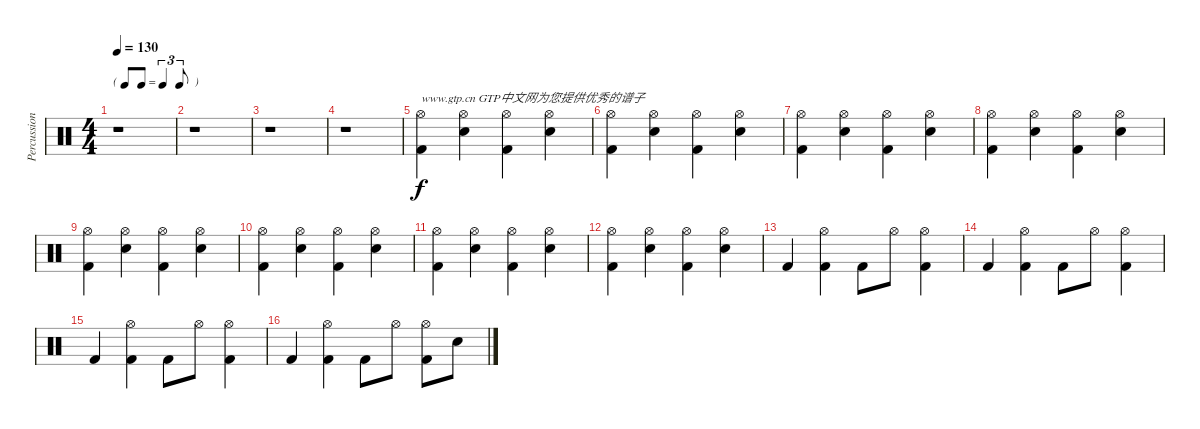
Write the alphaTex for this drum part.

\track ("Percussion" "Percussion") {instrument percussion}
\staff {score}
\articulation defaults
\ts (4 4)
\tf triplet8th
\tempo 130
\clef neutral
\ks c
r.1{dy f} |
r.1 |
r.1 |
r.1 |
("Hi-Hat (open)" "Kick (hit) 2").4{txt "www.gtp.cn GTP中文网为您提供优秀的谱子"} ("Hi-Hat (open)" "Hand Clap (hit)").4 ("Hi-Hat (open)" "Kick (hit) 2").4 ("Hi-Hat (open)" "Hand Clap (hit)").4 |
("Hi-Hat (open)" "Kick (hit) 2").4 ("Hi-Hat (open)" "Hand Clap (hit)").4 ("Hi-Hat (open)" "Kick (hit) 2").4 ("Hi-Hat (open)" "Hand Clap (hit)").4 |
("Hi-Hat (open)" "Kick (hit) 2").4 ("Hi-Hat (open)" "Hand Clap (hit)").4 ("Hi-Hat (open)" "Kick (hit) 2").4 ("Hi-Hat (open)" "Hand Clap (hit)").4 |
("Hi-Hat (open)" "Kick (hit) 2").4 ("Hi-Hat (open)" "Hand Clap (hit)").4 ("Hi-Hat (open)" "Kick (hit) 2").4 ("Hi-Hat (open)" "Hand Clap (hit)").4 |
("Hi-Hat (open)" "Kick (hit) 2").4 ("Hi-Hat (open)" "Hand Clap (hit)").4 ("Hi-Hat (open)" "Kick (hit) 2").4 ("Hi-Hat (open)" "Hand Clap (hit)").4 |
("Hi-Hat (open)" "Kick (hit) 2").4 ("Hi-Hat (open)" "Hand Clap (hit)").4 ("Hi-Hat (open)" "Kick (hit) 2").4 ("Hi-Hat (open)" "Hand Clap (hit)").4 |
("Hi-Hat (open)" "Kick (hit) 2").4 ("Hi-Hat (open)" "Hand Clap (hit)").4 ("Hi-Hat (open)" "Kick (hit) 2").4 ("Hi-Hat (open)" "Hand Clap (hit)").4 |
("Hi-Hat (open)" "Kick (hit) 2").4 ("Hi-Hat (open)" "Hand Clap (hit)").4 ("Hi-Hat (open)" "Kick (hit) 2").4 ("Hi-Hat (open)" "Hand Clap (hit)").4 |
"Kick (hit) 2".4 ("Hi-Hat (open)" "Kick (hit) 2").4 "Kick (hit) 2".8 "Hi-Hat (open)".8 ("Hi-Hat (open)" "Kick (hit) 2").4 |
"Kick (hit) 2".4 ("Hi-Hat (open)" "Kick (hit) 2").4 "Kick (hit) 2".8 "Hi-Hat (open)".8 ("Hi-Hat (open)" "Kick (hit) 2").4 |
"Kick (hit) 2".4 ("Hi-Hat (open)" "Kick (hit) 2").4 "Kick (hit) 2".8 "Hi-Hat (open)".8 ("Hi-Hat (open)" "Kick (hit) 2").4 |
"Kick (hit) 2".4 ("Hi-Hat (open)" "Kick (hit) 2").4 "Kick (hit) 2".8 "Hi-Hat (open)".8 ("Hi-Hat (open)" "Kick (hit) 2").8 "Snare (hit) 2".8
